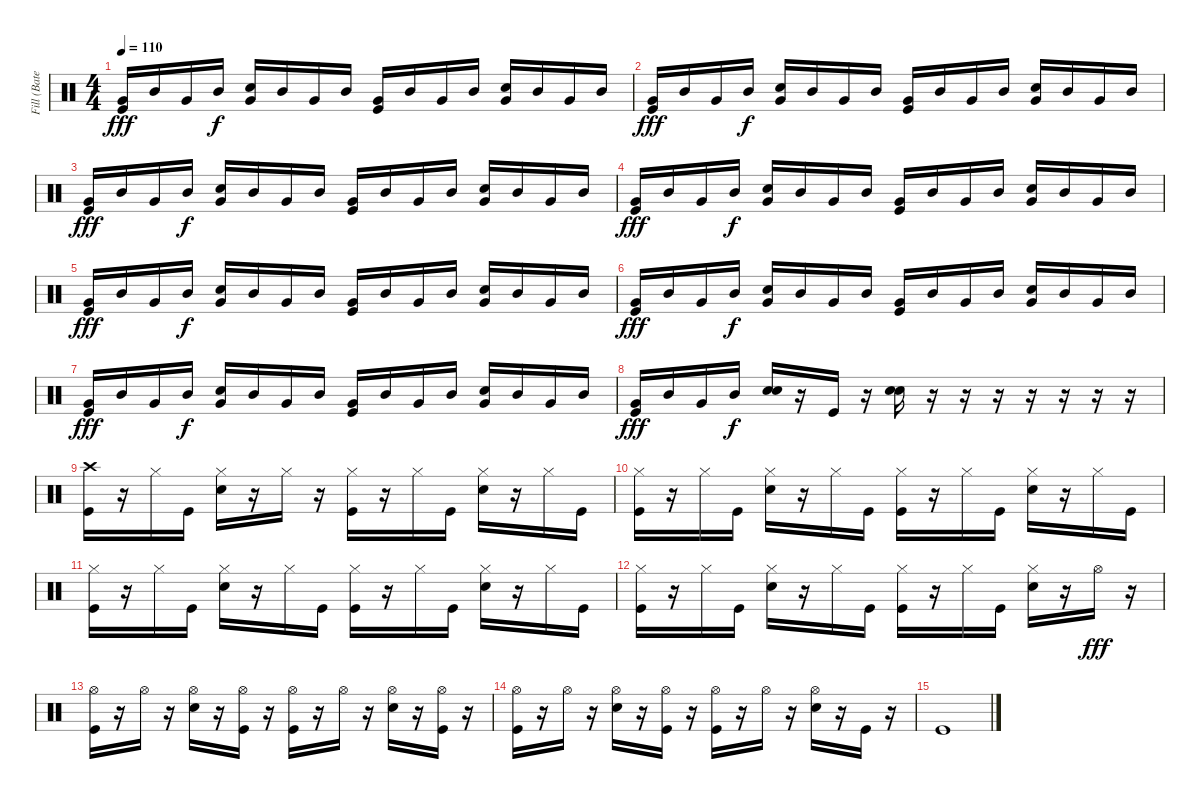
\track ("Fill (Bateria)" "Fill (Bate") {instrument percussion}
\staff {score}
\articulation defaults
\ts (4 4)
\tempo 110
\clef neutral
\ks c
("Very Low Tom (hit)" "Kick (hit)").16{dy fff} "Mid Tom (hit)".16 "Very Low Tom (hit)".16 "Mid Tom (hit)".16{dy f} ("Electric Snare (hit)" "Very Low Tom (hit)").16 "Mid Tom (hit)".16 "Very Low Tom (hit)".16 "Mid Tom (hit)".16 ("Very Low Tom (hit)" "Kick (hit)").16 "Mid Tom (hit)".16 "Very Low Tom (hit)".16 "Mid Tom (hit)".16 ("Electric Snare (hit)" "Very Low Tom (hit)").16 "Mid Tom (hit)".16 "Very Low Tom (hit)".16 "Mid Tom (hit)".16 |
("Very Low Tom (hit)" "Kick (hit)").16{dy fff} "Mid Tom (hit)".16 "Very Low Tom (hit)".16 "Mid Tom (hit)".16{dy f} ("Electric Snare (hit)" "Very Low Tom (hit)").16 "Mid Tom (hit)".16 "Very Low Tom (hit)".16 "Mid Tom (hit)".16 ("Very Low Tom (hit)" "Kick (hit)").16 "Mid Tom (hit)".16 "Very Low Tom (hit)".16 "Mid Tom (hit)".16 ("Electric Snare (hit)" "Very Low Tom (hit)").16 "Mid Tom (hit)".16 "Very Low Tom (hit)".16 "Mid Tom (hit)".16 |
("Very Low Tom (hit)" "Kick (hit)").16{dy fff} "Mid Tom (hit)".16 "Very Low Tom (hit)".16 "Mid Tom (hit)".16{dy f} ("Electric Snare (hit)" "Very Low Tom (hit)").16 "Mid Tom (hit)".16 "Very Low Tom (hit)".16 "Mid Tom (hit)".16 ("Very Low Tom (hit)" "Kick (hit)").16 "Mid Tom (hit)".16 "Very Low Tom (hit)".16 "Mid Tom (hit)".16 ("Electric Snare (hit)" "Very Low Tom (hit)").16 "Mid Tom (hit)".16 "Very Low Tom (hit)".16 "Mid Tom (hit)".16 |
("Very Low Tom (hit)" "Kick (hit)").16{dy fff} "Mid Tom (hit)".16 "Very Low Tom (hit)".16 "Mid Tom (hit)".16{dy f} ("Electric Snare (hit)" "Very Low Tom (hit)").16 "Mid Tom (hit)".16 "Very Low Tom (hit)".16 "Mid Tom (hit)".16 ("Very Low Tom (hit)" "Kick (hit)").16 "Mid Tom (hit)".16 "Very Low Tom (hit)".16 "Mid Tom (hit)".16 ("Electric Snare (hit)" "Very Low Tom (hit)").16 "Mid Tom (hit)".16 "Very Low Tom (hit)".16 "Mid Tom (hit)".16 |
("Very Low Tom (hit)" "Kick (hit)").16{dy fff} "Mid Tom (hit)".16 "Very Low Tom (hit)".16 "Mid Tom (hit)".16{dy f} ("Electric Snare (hit)" "Very Low Tom (hit)").16 "Mid Tom (hit)".16 "Very Low Tom (hit)".16 "Mid Tom (hit)".16 ("Very Low Tom (hit)" "Kick (hit)").16 "Mid Tom (hit)".16 "Very Low Tom (hit)".16 "Mid Tom (hit)".16 ("Electric Snare (hit)" "Very Low Tom (hit)").16 "Mid Tom (hit)".16 "Very Low Tom (hit)".16 "Mid Tom (hit)".16 |
("Very Low Tom (hit)" "Kick (hit)").16{dy fff} "Mid Tom (hit)".16 "Very Low Tom (hit)".16 "Mid Tom (hit)".16{dy f} ("Electric Snare (hit)" "Very Low Tom (hit)").16 "Mid Tom (hit)".16 "Very Low Tom (hit)".16 "Mid Tom (hit)".16 ("Very Low Tom (hit)" "Kick (hit)").16 "Mid Tom (hit)".16 "Very Low Tom (hit)".16 "Mid Tom (hit)".16 ("Electric Snare (hit)" "Very Low Tom (hit)").16 "Mid Tom (hit)".16 "Very Low Tom (hit)".16 "Mid Tom (hit)".16 |
("Very Low Tom (hit)" "Kick (hit)").16{dy fff} "Mid Tom (hit)".16 "Very Low Tom (hit)".16 "Mid Tom (hit)".16{dy f} ("Electric Snare (hit)" "Very Low Tom (hit)").16 "Mid Tom (hit)".16 "Very Low Tom (hit)".16 "Mid Tom (hit)".16 ("Very Low Tom (hit)" "Kick (hit)").16 "Mid Tom (hit)".16 "Very Low Tom (hit)".16 "Mid Tom (hit)".16 ("Electric Snare (hit)" "Very Low Tom (hit)").16 "Mid Tom (hit)".16 "Very Low Tom (hit)".16 "Mid Tom (hit)".16 |
("Very Low Tom (hit)" "Kick (hit)").16{dy fff} "Mid Tom (hit)".16 "Very Low Tom (hit)".16 "Mid Tom (hit)".16{dy f} ("Electric Snare (hit)" "Electric Snare (hit)").16 r.16 "Kick (hit)".16 r.16 ("Electric Snare (hit)" "Electric Snare (hit)").16 r.16 r.16 r.16 r.16 r.16 r.16 r.16 |
("Kick (hit)" "Crash high (hit)").16 r.16 "Hi-Hat (closed)".16 "Kick (hit)".16 ("Electric Snare (hit)" "Hi-Hat (closed)").16 r.16 "Hi-Hat (closed)".16 r.16 ("Hi-Hat (closed)" "Kick (hit)").16 r.16 "Hi-Hat (closed)".16 "Kick (hit)".16 ("Electric Snare (hit)" "Hi-Hat (closed)").16 r.16 "Hi-Hat (closed)".16 "Kick (hit)".16 |
("Hi-Hat (closed)" "Kick (hit)").16 r.16 "Hi-Hat (closed)".16 "Kick (hit)".16 ("Electric Snare (hit)" "Hi-Hat (closed)").16 r.16 "Hi-Hat (closed)".16 "Kick (hit)".16 ("Hi-Hat (closed)" "Kick (hit)").16 r.16 "Hi-Hat (closed)".16 "Kick (hit)".16 ("Electric Snare (hit)" "Hi-Hat (closed)").16 r.16 "Hi-Hat (closed)".16 "Kick (hit)".16 |
("Hi-Hat (closed)" "Kick (hit)").16 r.16 "Hi-Hat (closed)".16 "Kick (hit)".16 ("Electric Snare (hit)" "Hi-Hat (closed)").16 r.16 "Hi-Hat (closed)".16 "Kick (hit)".16 ("Hi-Hat (closed)" "Kick (hit)").16 r.16 "Hi-Hat (closed)".16 "Kick (hit)".16 ("Electric Snare (hit)" "Hi-Hat (closed)").16 r.16 "Hi-Hat (closed)".16 "Kick (hit)".16 |
("Hi-Hat (closed)" "Kick (hit)").16 r.16 "Hi-Hat (closed)".16 "Kick (hit)".16 ("Electric Snare (hit)" "Hi-Hat (closed)").16 r.16 "Hi-Hat (closed)".16 "Kick (hit)".16 ("Hi-Hat (closed)" "Kick (hit)").16 r.16 "Hi-Hat (closed)".16 "Kick (hit)".16 ("Electric Snare (hit)" "Hi-Hat (closed)").16 r.16 "Hi-Hat (open)".16{dy fff} r.16 |
("Hi-Hat (open)" "Kick (hit)").16 r.16 "Hi-Hat (open)".16 r.16 ("Electric Snare (hit)" "Hi-Hat (open)").16 r.16 ("Hi-Hat (open)" "Kick (hit)").16 r.16 ("Hi-Hat (open)" "Kick (hit)").16 r.16 "Hi-Hat (open)".16 r.16 ("Electric Snare (hit)" "Hi-Hat (open)").16 r.16 ("Hi-Hat (open)" "Kick (hit)").16 r.16 |
("Hi-Hat (open)" "Kick (hit)").16 r.16 "Hi-Hat (open)".16 r.16 ("Electric Snare (hit)" "Hi-Hat (open)").16 r.16 ("Hi-Hat (open)" "Kick (hit)").16 r.16 ("Hi-Hat (open)" "Kick (hit)").16 r.16 "Hi-Hat (open)".16 r.16 ("Electric Snare (hit)" "Hi-Hat (open)").16 r.16 "Kick (hit)".16 r.16 |
"Kick (hit)".1
